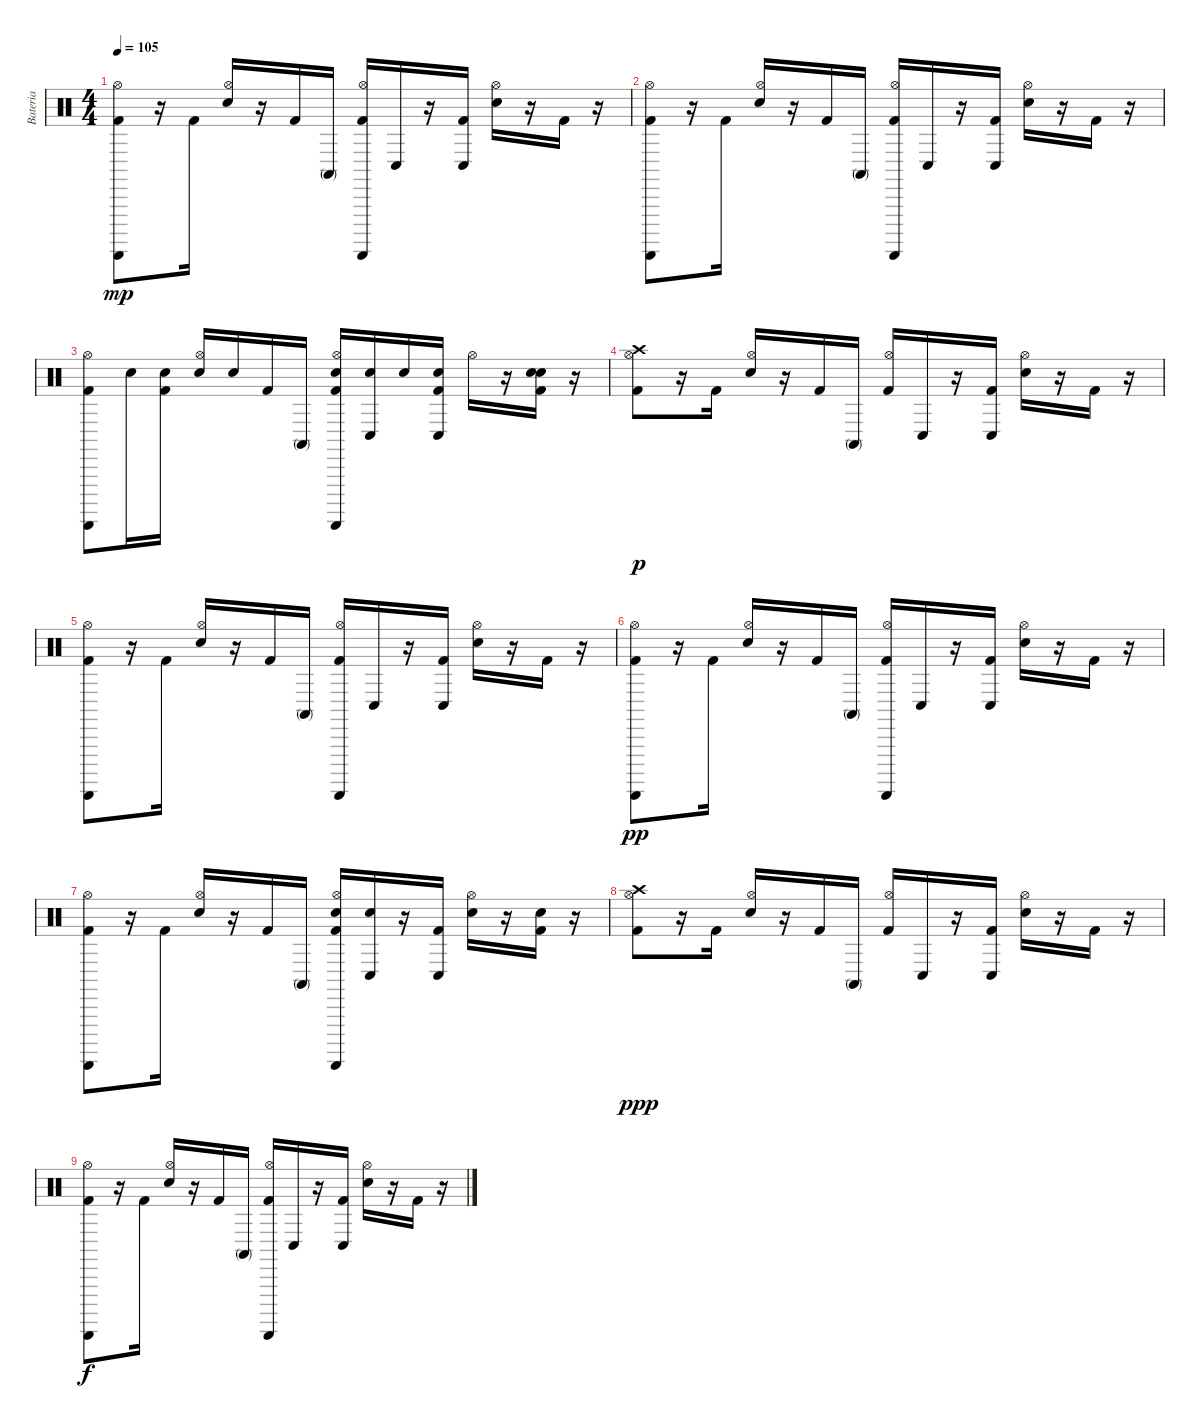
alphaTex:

\track ("Bateria" "Bateria") {instrument percussion}
\staff {score}
\articulation defaults
\ts (4 4)
\tempo 105
\clef neutral
\ks c
("Kick (hit) 2" "Guiro (scrap-return)" "Hi-Hat (open)").8{dy mp} r.16 "Kick (hit) 2".16 ("Electric Snare (hit)" "Hi-Hat (open)").16 r.16 "Kick (hit) 2".16 "Conga high (mute)".16 ("Kick (hit) 2" "Guiro (scrap-return)" "Hi-Hat (open)").16 "Conga low (hit)".16 r.16 ("Conga low (hit)" "Kick (hit) 2").16 ("Electric Snare (hit)" "Hi-Hat (open)").16 r.16 "Kick (hit) 2".16 r.16 |
("Kick (hit) 2" "Guiro (scrap-return)" "Hi-Hat (open)").8 r.16 "Kick (hit) 2".16 ("Electric Snare (hit)" "Hi-Hat (open)").16 r.16 "Kick (hit) 2".16 "Conga high (mute)".16 ("Kick (hit) 2" "Guiro (scrap-return)" "Hi-Hat (open)").16 "Conga low (hit)".16 r.16 ("Conga low (hit)" "Kick (hit) 2").16 ("Electric Snare (hit)" "Hi-Hat (open)").16 r.16 "Kick (hit) 2".16 r.16 |
("Kick (hit) 2" "Guiro (scrap-return)" "Hi-Hat (open)").8 "Electric Snare (hit)".16 ("Kick (hit) 2" "Electric Snare (hit)").16 ("Electric Snare (hit)" "Hi-Hat (open)").16 "Electric Snare (hit)".16 "Kick (hit) 2".16 "Conga high (mute)".16 ("Kick (hit) 2" "Guiro (scrap-return)" "Hi-Hat (open)" "Electric Snare (hit)").16 ("Conga low (hit)" "Electric Snare (hit)").16 "Electric Snare (hit)".16 ("Conga low (hit)" "Kick (hit) 2" "Electric Snare (hit)").16 "Hi-Hat (open)".16 r.16 ("Electric Snare (hit)" "Kick (hit) 2" "Electric Snare (hit)").16 r.16 |
("Kick (hit) 2" "Crash high (hit)" "Hi-Hat (open)").8{dy p} r.16 "Kick (hit) 2".16 ("Electric Snare (hit)" "Hi-Hat (open)").16 r.16 "Kick (hit) 2".16 "Conga high (mute)".16 ("Kick (hit) 2" "Hi-Hat (open)").16 "Conga low (hit)".16 r.16 ("Conga low (hit)" "Kick (hit) 2").16 ("Electric Snare (hit)" "Hi-Hat (open)").16 r.16 "Kick (hit) 2".16 r.16 |
("Kick (hit) 2" "Guiro (scrap-return)" "Hi-Hat (open)").8 r.16 "Kick (hit) 2".16 ("Electric Snare (hit)" "Hi-Hat (open)").16 r.16 "Kick (hit) 2".16 "Conga high (mute)".16 ("Kick (hit) 2" "Guiro (scrap-return)" "Hi-Hat (open)").16 "Conga low (hit)".16 r.16 ("Conga low (hit)" "Kick (hit) 2").16 ("Electric Snare (hit)" "Hi-Hat (open)").16 r.16 "Kick (hit) 2".16 r.16 |
("Kick (hit) 2" "Guiro (scrap-return)" "Hi-Hat (open)").8{dy pp} r.16 "Kick (hit) 2".16 ("Electric Snare (hit)" "Hi-Hat (open)").16 r.16 "Kick (hit) 2".16 "Conga high (mute)".16 ("Kick (hit) 2" "Guiro (scrap-return)" "Hi-Hat (open)").16 "Conga low (hit)".16 r.16 ("Conga low (hit)" "Kick (hit) 2").16 ("Electric Snare (hit)" "Hi-Hat (open)").16 r.16 "Kick (hit) 2".16 r.16 |
("Kick (hit) 2" "Guiro (scrap-return)" "Hi-Hat (open)").8 r.16 "Kick (hit) 2".16 ("Electric Snare (hit)" "Hi-Hat (open)").16 r.16 "Kick (hit) 2".16 "Conga high (mute)".16 ("Kick (hit) 2" "Guiro (scrap-return)" "Hi-Hat (open)" "Electric Snare (hit)").16 ("Conga low (hit)" "Electric Snare (hit)").16 r.16 ("Conga low (hit)" "Kick (hit) 2").16 ("Electric Snare (hit)" "Hi-Hat (open)").16 r.16 ("Kick (hit) 2" "Electric Snare (hit)").16 r.16 |
("Kick (hit) 2" "Crash high (hit)" "Hi-Hat (open)").8{dy ppp} r.16 "Kick (hit) 2".16 ("Electric Snare (hit)" "Hi-Hat (open)").16 r.16 "Kick (hit) 2".16 "Conga high (mute)".16 ("Kick (hit) 2" "Hi-Hat (open)").16 "Conga low (hit)".16 r.16 ("Conga low (hit)" "Kick (hit) 2").16 ("Electric Snare (hit)" "Hi-Hat (open)").16 r.16 "Kick (hit) 2".16 r.16 |
("Kick (hit) 2" "Guiro (scrap-return)" "Hi-Hat (open)").8{dy f} r.16 "Kick (hit) 2".16 ("Electric Snare (hit)" "Hi-Hat (open)").16 r.16 "Kick (hit) 2".16 "Conga high (mute)".16 ("Kick (hit) 2" "Guiro (scrap-return)" "Hi-Hat (open)").16 "Conga low (hit)".16 r.16 ("Conga low (hit)" "Kick (hit) 2").16 ("Electric Snare (hit)" "Hi-Hat (open)").16 r.16 "Kick (hit) 2".16 r.16
